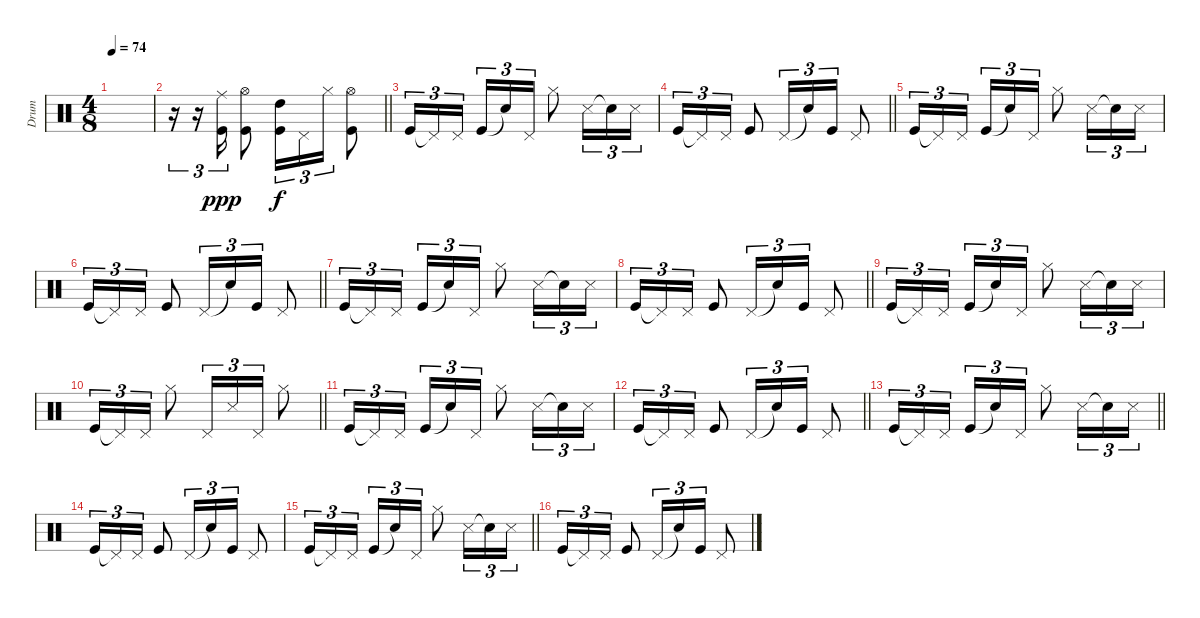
\track ("Drum" "Drum") {instrument percussion}
\staff {score}
\articulation defaults
\ts (4 8)
\tempo 74
\clef neutral
\ks c
|
\barLineRight lightlight
r.16{tu (3 2)} r.16{tu (3 2)} ("Ride (middle)" "Kick (hit)").16{tu (3 2) dy ppp} ("Hi-Hat (open)" "Kick (hit)").8 ("High Tom (hit)" "Kick (hit)").16{tu (3 2) dy f} "Pedal Hi-Hat (hit)".16{tu (3 2)} "Hi-Hat (closed)".16{tu (3 2)} ("Hi-Hat (open)" "Kick (hit)").8 |
\section ("" "")
"Kick (hit)".16{tu (3 2)} "Pedal Hi-Hat (hit)"{t}.16{tu (3 2)} "Pedal Hi-Hat (hit)".16{tu (3 2)} "Kick (hit)".16{tu (3 2)} "Snare (hit)"{t}.16{tu (3 2)} "Pedal Hi-Hat (hit)".16{tu (3 2)} "Hi-Hat (closed)".8 "Snare (side stick) 3".16{tu (3 2)} "Snare (hit)"{t}.16{tu (3 2)} "Snare (side stick) 3".16{tu (3 2)} |
\barLineRight lightlight "Kick (hit)".16{tu (3 2)} "Pedal Hi-Hat (hit)"{t}.16{tu (3 2)} "Pedal Hi-Hat (hit)".16{tu (3 2)} "Kick (hit)".8 "Pedal Hi-Hat (hit)".16{tu (3 2)} "Snare (hit)"{t}.16{tu (3 2)} "Kick (hit)".16{tu (3 2)} "Pedal Hi-Hat (hit)".8
|
\section ("" "")
"Kick (hit)".16{tu (3 2)} "Pedal Hi-Hat (hit)"{t}.16{tu (3 2)} "Pedal Hi-Hat (hit)".16{tu (3 2)} "Kick (hit)".16{tu (3 2)} "Snare (hit)"{t}.16{tu (3 2)} "Pedal Hi-Hat (hit)".16{tu (3 2)} "Hi-Hat (closed)".8 "Snare (side stick) 3".16{tu (3 2)} "Snare (hit)"{t}.16{tu (3 2)} "Snare (side stick) 3".16{tu (3 2)} |
\barLineRight lightlight "Kick (hit)".16{tu (3 2)} "Pedal Hi-Hat (hit)"{t}.16{tu (3 2)} "Pedal Hi-Hat (hit)".16{tu (3 2)} "Kick (hit)".8 "Pedal Hi-Hat (hit)".16{tu (3 2)} "Snare (hit)"{t}.16{tu (3 2)} "Kick (hit)".16{tu (3 2)} "Pedal Hi-Hat (hit)".8
|
\section ("" "")
"Kick (hit)".16{tu (3 2)} "Pedal Hi-Hat (hit)"{t}.16{tu (3 2)} "Pedal Hi-Hat (hit)".16{tu (3 2)} "Kick (hit)".16{tu (3 2)} "Snare (hit)"{t}.16{tu (3 2)} "Pedal Hi-Hat (hit)".16{tu (3 2)} "Hi-Hat (closed)".8 "Snare (side stick) 3".16{tu (3 2)} "Snare (hit)"{t}.16{tu (3 2)} "Snare (side stick) 3".16{tu (3 2)} |
\barLineRight lightlight "Kick (hit)".16{tu (3 2)} "Pedal Hi-Hat (hit)"{t}.16{tu (3 2)} "Pedal Hi-Hat (hit)".16{tu (3 2)} "Kick (hit)".8 "Pedal Hi-Hat (hit)".16{tu (3 2)} "Snare (hit)"{t}.16{tu (3 2)} "Kick (hit)".16{tu (3 2)} "Pedal Hi-Hat (hit)".8
|
\section ("" "")
"Kick (hit)".16{tu (3 2)} "Pedal Hi-Hat (hit)"{t}.16{tu (3 2)} "Pedal Hi-Hat (hit)".16{tu (3 2)} "Kick (hit)".16{tu (3 2)} "Snare (hit)"{t}.16{tu (3 2)} "Pedal Hi-Hat (hit)".16{tu (3 2)} "Hi-Hat (closed)".8 "Snare (side stick) 3".16{tu (3 2)} "Snare (hit)"{t}.16{tu (3 2)} "Snare (side stick) 3".16{tu (3 2)} |
\barLineRight lightlight "Kick (hit)".16{tu (3 2)} "Pedal Hi-Hat (hit)"{t}.16{tu (3 2)} "Pedal Hi-Hat (hit)".16{tu (3 2)} "Hi-Hat (closed)".8 "Pedal Hi-Hat (hit)".16{tu (3 2)} "Snare (side stick) 3".16{tu (3 2)} "Pedal Hi-Hat (hit)".16{tu (3 2)} "Hi-Hat (closed)".8
|
\section ("" "")
"Kick (hit)".16{tu (3 2)} "Pedal Hi-Hat (hit)"{t}.16{tu (3 2)} "Pedal Hi-Hat (hit)".16{tu (3 2)} "Kick (hit)".16{tu (3 2)} "Snare (hit)"{t}.16{tu (3 2)} "Pedal Hi-Hat (hit)".16{tu (3 2)} "Hi-Hat (closed)".8 "Snare (side stick) 3".16{tu (3 2)} "Snare (hit)"{t}.16{tu (3 2)} "Snare (side stick) 3".16{tu (3 2)} |
\barLineRight lightlight "Kick (hit)".16{tu (3 2)} "Pedal Hi-Hat (hit)"{t}.16{tu (3 2)} "Pedal Hi-Hat (hit)".16{tu (3 2)} "Kick (hit)".8 "Pedal Hi-Hat (hit)".16{tu (3 2)} "Snare (hit)"{t}.16{tu (3 2)} "Kick (hit)".16{tu (3 2)} "Pedal Hi-Hat (hit)".8
|
\section ("" "")
\barLineRight lightlight "Kick (hit)".16{tu (3 2)} "Pedal Hi-Hat (hit)"{t}.16{tu (3 2)} "Pedal Hi-Hat (hit)".16{tu (3 2)} "Kick (hit)".16{tu (3 2)} "Snare (hit)"{t}.16{tu (3 2)} "Pedal Hi-Hat (hit)".16{tu (3 2)} "Hi-Hat (closed)".8 "Snare (side stick) 3".16{tu (3 2)} "Snare (hit)"{t}.16{tu (3 2)} "Snare (side stick) 3".16{tu (3 2)}
|
\section ("" "")
"Kick (hit)".16{tu (3 2)} "Pedal Hi-Hat (hit)"{t}.16{tu (3 2)} "Pedal Hi-Hat (hit)".16{tu (3 2)} "Kick (hit)".8 "Pedal Hi-Hat (hit)".16{tu (3 2)} "Snare (hit)"{t}.16{tu (3 2)} "Kick (hit)".16{tu (3 2)} "Pedal Hi-Hat (hit)".8 |
\barLineRight lightlight "Kick (hit)".16{tu (3 2)} "Pedal Hi-Hat (hit)"{t}.16{tu (3 2)} "Pedal Hi-Hat (hit)".16{tu (3 2)} "Kick (hit)".16{tu (3 2)} "Snare (hit)"{t}.16{tu (3 2)} "Pedal Hi-Hat (hit)".16{tu (3 2)} "Hi-Hat (closed)".8 "Snare (side stick) 3".16{tu (3 2)} "Snare (hit)"{t}.16{tu (3 2)} "Snare (side stick) 3".16{tu (3 2)}
|
\section ("" "")
"Kick (hit)".16{tu (3 2)} "Pedal Hi-Hat (hit)"{t}.16{tu (3 2)} "Pedal Hi-Hat (hit)".16{tu (3 2)} "Kick (hit)".8 "Pedal Hi-Hat (hit)".16{tu (3 2)} "Snare (hit)"{t}.16{tu (3 2)} "Kick (hit)".16{tu (3 2)} "Pedal Hi-Hat (hit)".8
